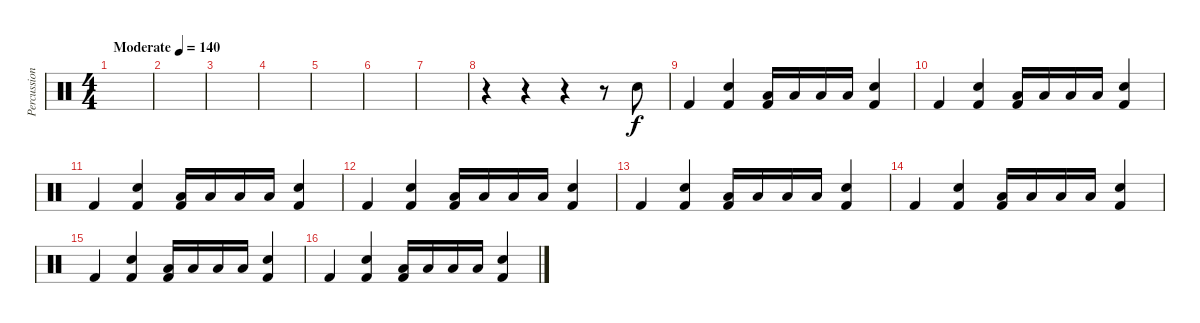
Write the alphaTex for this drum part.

\track ("Percussion" "Percussion") {instrument percussion}
\staff {score}
\articulation defaults
\ts (4 4)
\tempo (140 "Moderate")
\clef neutral
\ks c
|
|
|
|
|
|
|
r.4 r.4 r.4 r.8 "Snare (hit) 2".8 |
"Kick (hit) 2".4 ("Snare (hit) 2" "Kick (hit) 2").4 ("Low Tom (hit)" "Kick (hit) 2").16 "Low Tom (hit)".16 "Low Tom (hit)".16 "Low Tom (hit)".16 ("Snare (hit) 2" "Kick (hit) 2").4 |
"Kick (hit) 2".4 ("Snare (hit) 2" "Kick (hit) 2").4 ("Low Tom (hit)" "Kick (hit) 2").16 "Low Tom (hit)".16 "Low Tom (hit)".16 "Low Tom (hit)".16 ("Snare (hit) 2" "Kick (hit) 2").4 |
"Kick (hit) 2".4 ("Snare (hit) 2" "Kick (hit) 2").4 ("Low Tom (hit)" "Kick (hit) 2").16 "Low Tom (hit)".16 "Low Tom (hit)".16 "Low Tom (hit)".16 ("Snare (hit) 2" "Kick (hit) 2").4 |
"Kick (hit) 2".4 ("Snare (hit) 2" "Kick (hit) 2").4 ("Low Tom (hit)" "Kick (hit) 2").16 "Low Tom (hit)".16 "Low Tom (hit)".16 "Low Tom (hit)".16 ("Snare (hit) 2" "Kick (hit) 2").4 |
"Kick (hit) 2".4 ("Snare (hit) 2" "Kick (hit) 2").4 ("Low Tom (hit)" "Kick (hit) 2").16 "Low Tom (hit)".16 "Low Tom (hit)".16 "Low Tom (hit)".16 ("Snare (hit) 2" "Kick (hit) 2").4 |
"Kick (hit) 2".4 ("Snare (hit) 2" "Kick (hit) 2").4 ("Low Tom (hit)" "Kick (hit) 2").16 "Low Tom (hit)".16 "Low Tom (hit)".16 "Low Tom (hit)".16 ("Snare (hit) 2" "Kick (hit) 2").4 |
"Kick (hit) 2".4 ("Snare (hit) 2" "Kick (hit) 2").4 ("Low Tom (hit)" "Kick (hit) 2").16 "Low Tom (hit)".16 "Low Tom (hit)".16 "Low Tom (hit)".16 ("Snare (hit) 2" "Kick (hit) 2").4 |
"Kick (hit) 2".4 ("Snare (hit) 2" "Kick (hit) 2").4 ("Low Tom (hit)" "Kick (hit) 2").16 "Low Tom (hit)".16 "Low Tom (hit)".16 "Low Tom (hit)".16 ("Snare (hit) 2" "Kick (hit) 2").4
